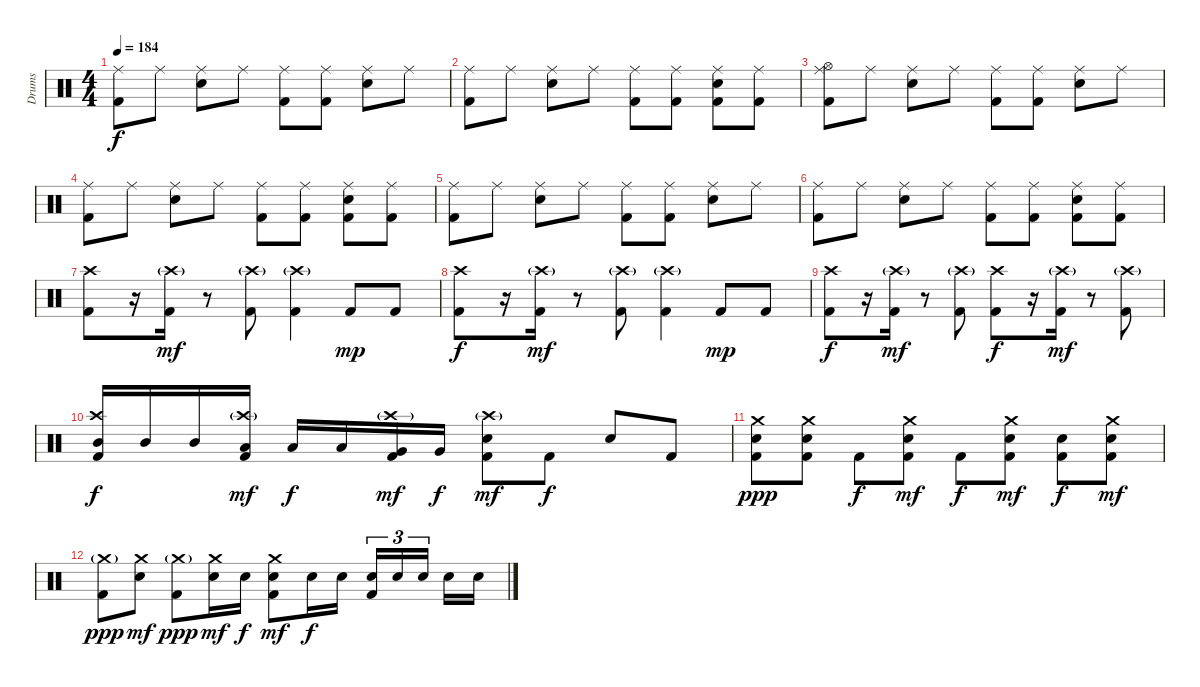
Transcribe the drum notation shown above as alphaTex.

\track ("Drums" "Drums") {instrument percussion}
\staff {score}
\articulation defaults
\ts (4 4)
\tempo 184
\clef neutral
\ks c
("Ride (middle)" "Kick (hit) 2").8{dy f} "Ride (middle)".8 ("Ride (middle)" "Electric Snare (hit)").8 "Ride (middle)".8 ("Ride (middle)" "Kick (hit) 2").8 ("Ride (middle)" "Kick (hit) 2").8 ("Ride (middle)" "Electric Snare (hit)").8 "Ride (middle)".8 |
("Ride (middle)" "Kick (hit) 2").8 "Ride (middle)".8 ("Ride (middle)" "Electric Snare (hit)").8 "Ride (middle)".8 ("Ride (middle)" "Kick (hit) 2").8 ("Ride (middle)" "Kick (hit) 2").8 ("Ride (middle)" "Electric Snare (hit)" "Kick (hit) 2").8 ("Ride (middle)" "Kick (hit) 2").8 |
("Ride (middle)" "Hi-Hat (open)" "Kick (hit) 2").8 "Ride (middle)".8 ("Ride (middle)" "Electric Snare (hit)").8 "Ride (middle)".8 ("Ride (middle)" "Kick (hit) 2").8 ("Ride (middle)" "Kick (hit) 2").8 ("Ride (middle)" "Electric Snare (hit)").8 "Ride (middle)".8 |
("Ride (middle)" "Kick (hit) 2").8 "Ride (middle)".8 ("Ride (middle)" "Electric Snare (hit)").8 "Ride (middle)".8 ("Ride (middle)" "Kick (hit) 2").8 ("Ride (middle)" "Kick (hit) 2").8 ("Ride (middle)" "Electric Snare (hit)" "Kick (hit) 2").8 ("Ride (middle)" "Kick (hit) 2").8 |
("Ride (middle)" "Kick (hit) 2").8 "Ride (middle)".8 ("Ride (middle)" "Electric Snare (hit)").8 "Ride (middle)".8 ("Ride (middle)" "Kick (hit) 2").8 ("Ride (middle)" "Kick (hit) 2").8 ("Ride (middle)" "Electric Snare (hit)").8 "Ride (middle)".8 |
("Ride (middle)" "Kick (hit) 2").8 "Ride (middle)".8 ("Ride (middle)" "Electric Snare (hit)").8 "Ride (middle)".8 ("Ride (middle)" "Kick (hit) 2").8 ("Ride (middle)" "Kick (hit) 2").8 ("Ride (middle)" "Electric Snare (hit)" "Kick (hit) 2").8 ("Ride (middle)" "Kick (hit) 2").8 |
("Crash high (hit)" "Kick (hit) 2").8 r.16 ("Crash high (hit)"{g} "Kick (hit) 2").16{dy mf} r.8 ("Crash high (hit)"{g} "Kick (hit) 2").8 ("Crash high (hit)"{g} "Kick (hit) 2").4 "Kick (hit) 2".8{dy mp} "Kick (hit) 2".8 |
("Crash high (hit)" "Kick (hit) 2").8{dy f} r.16 ("Crash high (hit)"{g} "Kick (hit) 2").16{dy mf} r.8 ("Crash high (hit)"{g} "Kick (hit) 2").8 ("Crash high (hit)"{g} "Kick (hit) 2").4 "Kick (hit) 2".8{dy mp} "Kick (hit) 2".8 |
("Crash high (hit)" "Kick (hit) 2").8{dy f} r.16 ("Crash high (hit)"{g} "Kick (hit) 2").16{dy mf} r.8 ("Crash high (hit)"{g} "Kick (hit) 2").8 ("Crash high (hit)" "Kick (hit) 2").8{dy f} r.16 ("Crash high (hit)"{g} "Kick (hit) 2").16{dy mf} r.8 ("Crash high (hit)"{g} "Kick (hit) 2").8 |
("Crash high (hit)" "Mid Tom (hit)" "Kick (hit) 2").16{dy f} "Mid Tom (hit)".16 "Mid Tom (hit)".16 ("Crash high (hit)"{g} "Low Tom (hit)" "Kick (hit) 2").16{dy mf} "Low Tom (hit)".16{dy f} "Low Tom (hit)".16 ("Crash high (hit)"{g} "Very Low Tom (hit)" "Kick (hit) 2").16{dy mf} "Very Low Tom (hit)".16{dy f} ("Crash high (hit)"{g} "Electric Snare (hit)" "Kick (hit) 2").8{dy mf} "Kick (hit) 2".8{dy f} "Electric Snare (hit)".8 "Kick (hit) 2".8 |
("Crash medium (hit)" "Electric Snare (hit)" "Kick (hit) 2").8{dy ppp} ("Crash medium (hit)" "Electric Snare (hit)" "Kick (hit) 2").8 "Kick (hit) 2".8{dy f} ("Crash medium (hit)" "Electric Snare (hit)" "Kick (hit) 2").8{dy mf} "Kick (hit) 2".8{dy f} ("Crash medium (hit)" "Electric Snare (hit)" "Kick (hit) 2").8{dy mf} ("Electric Snare (hit)" "Kick (hit) 2").8{dy f} ("Crash medium (hit)" "Electric Snare (hit)" "Kick (hit) 2").8{dy mf} |
("Crash medium (hit)"{g} "Kick (hit) 2").8{dy ppp} ("Crash medium (hit)" "Electric Snare (hit)").8{dy mf} ("Crash medium (hit)"{g} "Kick (hit) 2").8{dy ppp} ("Crash medium (hit)" "Electric Snare (hit)").16{dy mf} "Electric Snare (hit)".16{dy f} ("Crash medium (hit)" "Electric Snare (hit)" "Kick (hit) 2").8{dy mf} "Electric Snare (hit)".16{dy f} "Electric Snare (hit)".16 ("Electric Snare (hit)" "Kick (hit) 2").16{tu (3 2)} "Electric Snare (hit)".16{tu (3 2)} "Electric Snare (hit)".16{tu (3 2) beam splitsecondary} "Electric Snare (hit)".16 "Electric Snare (hit)".16
